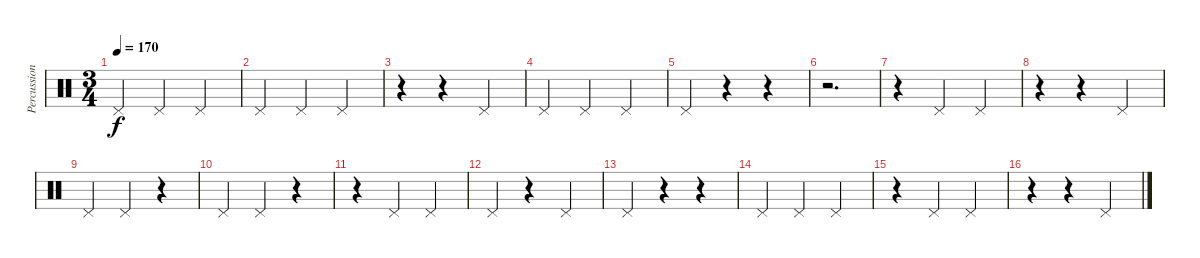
\track ("Percussion" "Percussion") {instrument percussion}
\staff {score}
\articulation defaults
\ts (3 4)
\tempo 170
\clef neutral
\ks c "Pedal Hi-Hat (hit)".4{dy f} "Pedal Hi-Hat (hit)".4 "Pedal Hi-Hat (hit)".4
|
"Pedal Hi-Hat (hit)".4 "Pedal Hi-Hat (hit)".4 "Pedal Hi-Hat (hit)".4 |
r.4 r.4 "Pedal Hi-Hat (hit)".4 |
"Pedal Hi-Hat (hit)".4 "Pedal Hi-Hat (hit)".4 "Pedal Hi-Hat (hit)".4 |
"Pedal Hi-Hat (hit)".4 r.4 r.4 |
r.2{d} |
r.4 "Pedal Hi-Hat (hit)".4 "Pedal Hi-Hat (hit)".4 |
r.4 r.4 "Pedal Hi-Hat (hit)".4 |
"Pedal Hi-Hat (hit)".4 "Pedal Hi-Hat (hit)".4 r.4 |
"Pedal Hi-Hat (hit)".4 "Pedal Hi-Hat (hit)".4 r.4 |
r.4 "Pedal Hi-Hat (hit)".4 "Pedal Hi-Hat (hit)".4 |
"Pedal Hi-Hat (hit)".4 r.4 "Pedal Hi-Hat (hit)".4 |
"Pedal Hi-Hat (hit)".4 r.4 r.4 |
"Pedal Hi-Hat (hit)".4 "Pedal Hi-Hat (hit)".4 "Pedal Hi-Hat (hit)".4 |
r.4 "Pedal Hi-Hat (hit)".4 "Pedal Hi-Hat (hit)".4 |
r.4 r.4 "Pedal Hi-Hat (hit)".4
